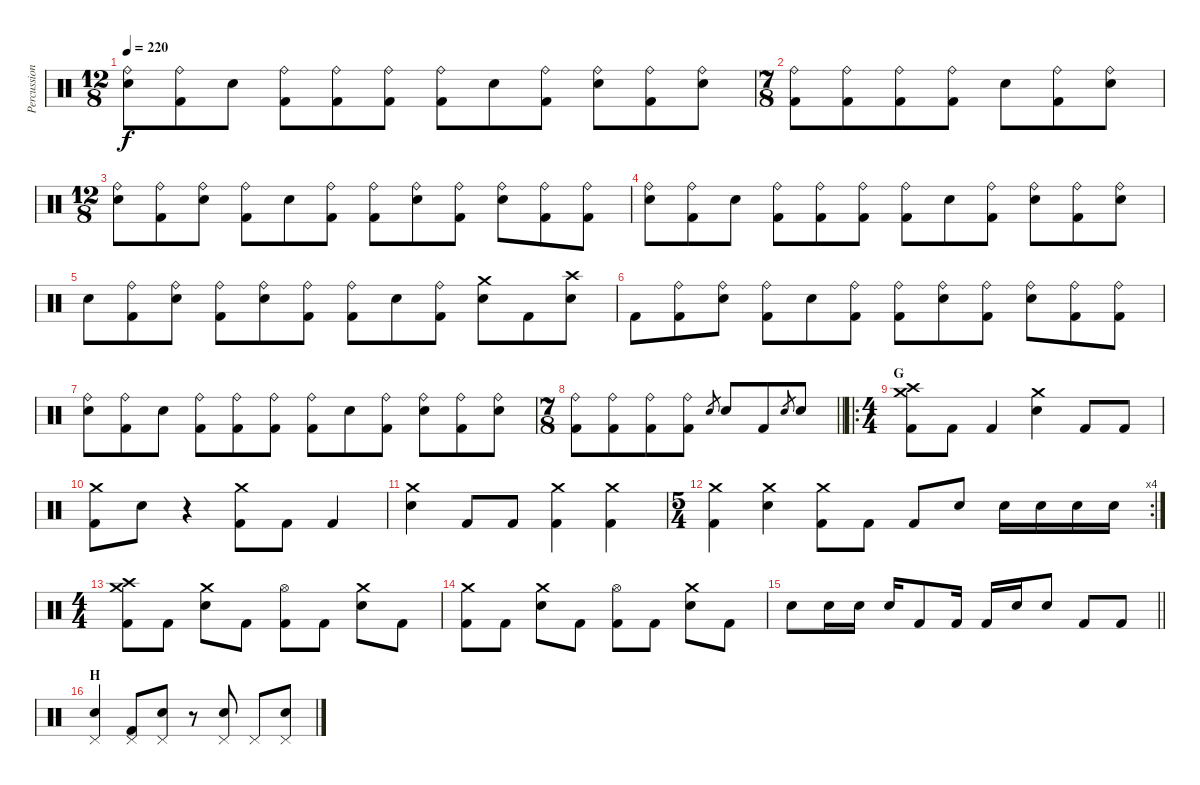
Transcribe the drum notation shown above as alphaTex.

\track ("Percussion" "Percussion") {instrument percussion}
\staff {score}
\articulation defaults
\ts (12 8)
\tempo 220
\clef neutral
\ks c
("Ride (bell)" "Electric Snare (hit)").8{dy f} ("Ride (bell)" "Kick (hit) 2").8 "Electric Snare (hit)".8 ("Ride (bell)" "Kick (hit) 2").8 ("Ride (bell)" "Kick (hit) 2").8 ("Ride (bell)" "Kick (hit) 2").8 ("Ride (bell)" "Kick (hit) 2").8 "Electric Snare (hit)".8 ("Ride (bell)" "Kick (hit) 2").8 ("Ride (bell)" "Electric Snare (hit)").8 ("Ride (bell)" "Kick (hit) 2").8 ("Ride (bell)" "Electric Snare (hit)").8 |
\ts (7 8)
("Ride (bell)" "Kick (hit) 2").8 ("Ride (bell)" "Kick (hit) 2").8 ("Ride (bell)" "Kick (hit) 2").8 ("Ride (bell)" "Kick (hit) 2").8 "Electric Snare (hit)".8 ("Ride (bell)" "Kick (hit) 2").8 ("Ride (bell)" "Electric Snare (hit)").8 |
\ts (12 8)
("Ride (bell)" "Electric Snare (hit)").8 ("Ride (bell)" "Kick (hit) 2").8 ("Ride (bell)" "Electric Snare (hit)").8 ("Ride (bell)" "Kick (hit) 2").8 "Electric Snare (hit)".8 ("Ride (bell)" "Kick (hit) 2").8 ("Ride (bell)" "Kick (hit) 2").8 ("Ride (bell)" "Electric Snare (hit)").8 ("Ride (bell)" "Kick (hit) 2").8 ("Ride (bell)" "Electric Snare (hit)").8 ("Ride (bell)" "Kick (hit) 2").8 ("Ride (bell)" "Kick (hit) 2").8 |
("Ride (bell)" "Electric Snare (hit)").8 ("Ride (bell)" "Kick (hit) 2").8 "Electric Snare (hit)".8 ("Ride (bell)" "Kick (hit) 2").8 ("Ride (bell)" "Kick (hit) 2").8 ("Ride (bell)" "Kick (hit) 2").8 ("Ride (bell)" "Kick (hit) 2").8 "Electric Snare (hit)".8 ("Ride (bell)" "Kick (hit) 2").8 ("Ride (bell)" "Electric Snare (hit)").8 ("Ride (bell)" "Kick (hit) 2").8 ("Ride (bell)" "Electric Snare (hit)").8 |
"Electric Snare (hit)".8 ("Ride (bell)" "Kick (hit) 2").8 ("Ride (bell)" "Electric Snare (hit)").8 ("Ride (bell)" "Kick (hit) 2").8 ("Ride (bell)" "Electric Snare (hit)").8 ("Ride (bell)" "Kick (hit) 2").8 ("Ride (bell)" "Kick (hit) 2").8 "Electric Snare (hit)".8 ("Ride (bell)" "Kick (hit) 2").8 ("Crash medium (hit)" "Electric Snare (hit)").8 "Kick (hit) 2".8 ("Crash high (hit)" "Electric Snare (hit)").8 |
"Kick (hit) 2".8 ("Ride (bell)" "Kick (hit) 2").8 ("Ride (bell)" "Electric Snare (hit)").8 ("Ride (bell)" "Kick (hit) 2").8 "Electric Snare (hit)".8 ("Ride (bell)" "Kick (hit) 2").8 ("Ride (bell)" "Kick (hit) 2").8 ("Ride (bell)" "Electric Snare (hit)").8 ("Ride (bell)" "Kick (hit) 2").8 ("Ride (bell)" "Electric Snare (hit)").8 ("Ride (bell)" "Kick (hit) 2").8 ("Ride (bell)" "Kick (hit) 2").8 |
("Ride (bell)" "Electric Snare (hit)").8 ("Ride (bell)" "Kick (hit) 2").8 "Electric Snare (hit)".8 ("Ride (bell)" "Kick (hit) 2").8 ("Ride (bell)" "Kick (hit) 2").8 ("Ride (bell)" "Kick (hit) 2").8 ("Ride (bell)" "Kick (hit) 2").8 "Electric Snare (hit)".8 ("Ride (bell)" "Kick (hit) 2").8 ("Ride (bell)" "Electric Snare (hit)").8 ("Ride (bell)" "Kick (hit) 2").8 ("Ride (bell)" "Electric Snare (hit)").8 |
\ts (7 8)
\barLineRight lightlight
("Ride (bell)" "Kick (hit) 2").8 ("Ride (bell)" "Kick (hit) 2").8 ("Ride (bell)" "Kick (hit) 2").8 ("Ride (bell)" "Kick (hit) 2").8 "Electric Snare (hit)".8{gr} "Electric Snare (hit)".8 "Kick (hit) 2".8 "Electric Snare (hit)".8{gr} "Electric Snare (hit)".8 |
\ro
\ts (4 4)
\section ("" "G")
("Crash medium (hit)" "Crash high (hit)" "Kick (hit) 2").8{volume 14} "Kick (hit) 2".8 "Kick (hit) 2".4 ("Crash medium (hit)" "Electric Snare (hit)").4 "Kick (hit) 2".8 "Kick (hit) 2".8 |
("Crash medium (hit)" "Kick (hit) 2").8 "Electric Snare (hit)".8 r.4 ("Crash medium (hit)" "Kick (hit) 2").8 "Kick (hit) 2".8 "Kick (hit) 2".4 |
("Crash medium (hit)" "Electric Snare (hit)").4 "Kick (hit) 2".8 "Kick (hit) 2".8 ("Crash medium (hit)" "Kick (hit) 2").4 ("Crash medium (hit)" "Kick (hit) 2").4 |
\rc 4
\ts (5 4)
("Crash medium (hit)" "Kick (hit) 2").4 ("Crash medium (hit)" "Electric Snare (hit)").4 ("Crash medium (hit)" "Kick (hit) 2").8 "Kick (hit) 2".8 "Kick (hit) 2".8 "Electric Snare (hit)".8 "Electric Snare (hit)".16 "Electric Snare (hit)".16 "Electric Snare (hit)".16 "Electric Snare (hit)".16 |
\ts (4 4)
("Crash medium (hit)" "Crash high (hit)" "Kick (hit) 2").8 "Kick (hit) 2".8 ("Crash medium (hit)" "Electric Snare (hit)").8 "Kick (hit) 2".8 ("Hi-Hat (open)" "Kick (hit) 2").8 "Kick (hit) 2".8 ("Crash medium (hit)" "Electric Snare (hit)").8 "Kick (hit) 2".8 |
("Crash medium (hit)" "Kick (hit) 2").8 "Kick (hit) 2".8 ("Crash medium (hit)" "Electric Snare (hit)").8 "Kick (hit) 2".8 ("Hi-Hat (open)" "Kick (hit) 2").8 "Kick (hit) 2".8 ("Crash medium (hit)" "Electric Snare (hit)").8 "Kick (hit) 2".8 |
\barLineRight lightlight "Electric Snare (hit)".8 "Electric Snare (hit)".16 "Electric Snare (hit)".16 "Electric Snare (hit)".16 "Kick (hit) 2".8 "Kick (hit) 2".16 "Kick (hit) 2".16 "Electric Snare (hit)".16 "Electric Snare (hit)".8 "Kick (hit) 2".8 "Kick (hit) 2".8
|
\section ("" "H")
("Pedal Hi-Hat (hit)" "Electric Snare (hit)").4{volume 12} ("Pedal Hi-Hat (hit)" "Kick (hit) 2").8 ("Pedal Hi-Hat (hit)" "Electric Snare (hit)").8 r.8 ("Pedal Hi-Hat (hit)" "Electric Snare (hit)").8 "Pedal Hi-Hat (hit)".8 ("Pedal Hi-Hat (hit)" "Electric Snare (hit)").8
